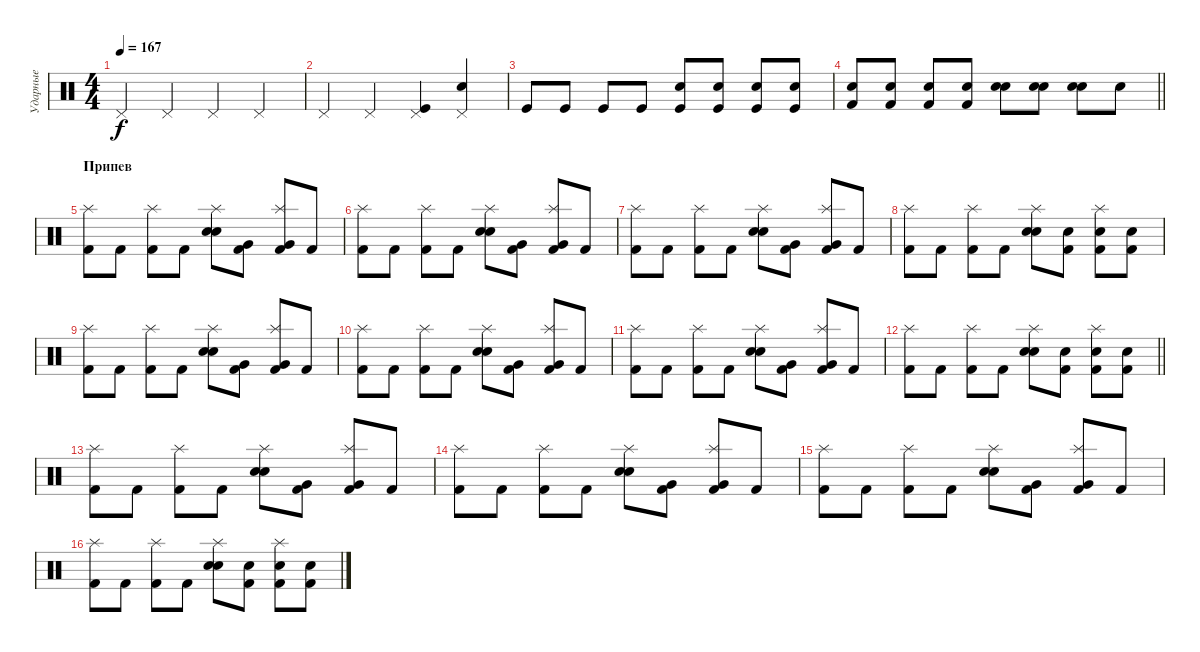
\track ("Ударные" "Ударные") {instrument percussion}
\staff {score}
\articulation defaults
\ts (4 4)
\tempo 167
\clef neutral
\ks c "Pedal Hi-Hat (hit)".4{dy f} "Pedal Hi-Hat (hit)".4 "Pedal Hi-Hat (hit)".4 "Pedal Hi-Hat (hit)".4
|
"Pedal Hi-Hat (hit)".4 "Pedal Hi-Hat (hit)".4 ("Pedal Hi-Hat (hit)" "Kick (hit)").4 ("Pedal Hi-Hat (hit)" "Electric Snare (hit)").4 |
"Kick (hit)".8 "Kick (hit)".8 "Kick (hit)".8 "Kick (hit)".8 ("Snare (hit) 2" "Kick (hit)").8 ("Snare (hit) 2" "Kick (hit)").8 ("Snare (hit) 2" "Kick (hit)").8 ("Snare (hit) 2" "Kick (hit)").8 |
\barLineRight lightlight
("Snare (hit) 2" "Kick (hit) 2").8 ("Snare (hit) 2" "Kick (hit) 2").8 ("Snare (hit) 2" "Kick (hit) 2").8 ("Snare (hit) 2" "Kick (hit) 2").8 ("Electric Snare (hit)" "Snare (hit) 2").8 ("Electric Snare (hit)" "Snare (hit) 2").8 ("Electric Snare (hit)" "Snare (hit) 2").8 "Electric Snare (hit)".8 |
\section ("" "Припев")
("Splash (hit)" "Kick (hit) 2").8 "Kick (hit) 2".8 ("Splash (hit)" "Kick (hit) 2").8 "Kick (hit) 2".8 ("Splash (hit)" "Electric Snare (hit)" "Snare (hit) 2").8 ("Very Low Tom (hit)" "Kick (hit) 2").8 ("Splash (hit)" "Very Low Tom (hit)" "Kick (hit) 2").8 "Kick (hit) 2".8 |
("Splash (hit)" "Kick (hit) 2").8 "Kick (hit) 2".8 ("Splash (hit)" "Kick (hit) 2").8 "Kick (hit) 2".8 ("Splash (hit)" "Electric Snare (hit)" "Snare (hit) 2").8 ("Very Low Tom (hit)" "Kick (hit) 2").8 ("Splash (hit)" "Very Low Tom (hit)" "Kick (hit) 2").8 "Kick (hit) 2".8 |
("Splash (hit)" "Kick (hit) 2").8 "Kick (hit) 2".8 ("Splash (hit)" "Kick (hit) 2").8 "Kick (hit) 2".8 ("Splash (hit)" "Electric Snare (hit)" "Snare (hit) 2").8 ("Very Low Tom (hit)" "Kick (hit) 2").8 ("Splash (hit)" "Very Low Tom (hit)" "Kick (hit) 2").8 "Kick (hit) 2".8 |
("Splash (hit)" "Kick (hit) 2").8 "Kick (hit) 2".8 ("Splash (hit)" "Kick (hit) 2").8 "Kick (hit) 2".8 ("Splash (hit)" "Electric Snare (hit)" "Snare (hit) 2").8 ("Electric Snare (hit)" "Kick (hit) 2").8 ("Splash (hit)" "Electric Snare (hit)" "Kick (hit) 2").8 ("Electric Snare (hit)" "Kick (hit) 2").8 |
("Splash (hit)" "Kick (hit) 2").8 "Kick (hit) 2".8 ("Splash (hit)" "Kick (hit) 2").8 "Kick (hit) 2".8 ("Splash (hit)" "Electric Snare (hit)" "Snare (hit) 2").8 ("Very Low Tom (hit)" "Kick (hit) 2").8 ("Splash (hit)" "Very Low Tom (hit)" "Kick (hit) 2").8 "Kick (hit) 2".8 |
("Splash (hit)" "Kick (hit) 2").8 "Kick (hit) 2".8 ("Splash (hit)" "Kick (hit) 2").8 "Kick (hit) 2".8 ("Splash (hit)" "Electric Snare (hit)" "Snare (hit) 2").8 ("Very Low Tom (hit)" "Kick (hit) 2").8 ("Splash (hit)" "Very Low Tom (hit)" "Kick (hit) 2").8 "Kick (hit) 2".8 |
("Splash (hit)" "Kick (hit) 2").8 "Kick (hit) 2".8 ("Splash (hit)" "Kick (hit) 2").8 "Kick (hit) 2".8 ("Splash (hit)" "Electric Snare (hit)" "Snare (hit) 2").8 ("Very Low Tom (hit)" "Kick (hit) 2").8 ("Splash (hit)" "Very Low Tom (hit)" "Kick (hit) 2").8 "Kick (hit) 2".8 |
\barLineRight lightlight
("Splash (hit)" "Kick (hit) 2").8 "Kick (hit) 2".8 ("Splash (hit)" "Kick (hit) 2").8 "Kick (hit) 2".8 ("Splash (hit)" "Electric Snare (hit)" "Snare (hit) 2").8 ("Electric Snare (hit)" "Kick (hit) 2").8 ("Splash (hit)" "Electric Snare (hit)" "Kick (hit) 2").8 ("Electric Snare (hit)" "Kick (hit) 2").8 |
("Splash (hit)" "Kick (hit) 2").8 "Kick (hit) 2".8 ("Splash (hit)" "Kick (hit) 2").8 "Kick (hit) 2".8 ("Splash (hit)" "Electric Snare (hit)" "Snare (hit) 2").8 ("Very Low Tom (hit)" "Kick (hit) 2").8 ("Splash (hit)" "Very Low Tom (hit)" "Kick (hit) 2").8 "Kick (hit) 2".8 |
("Splash (hit)" "Kick (hit) 2").8 "Kick (hit) 2".8 ("Splash (hit)" "Kick (hit) 2").8 "Kick (hit) 2".8 ("Splash (hit)" "Electric Snare (hit)" "Snare (hit) 2").8 ("Very Low Tom (hit)" "Kick (hit) 2").8 ("Splash (hit)" "Very Low Tom (hit)" "Kick (hit) 2").8 "Kick (hit) 2".8 |
("Splash (hit)" "Kick (hit) 2").8 "Kick (hit) 2".8 ("Splash (hit)" "Kick (hit) 2").8 "Kick (hit) 2".8 ("Splash (hit)" "Electric Snare (hit)" "Snare (hit) 2").8 ("Very Low Tom (hit)" "Kick (hit) 2").8 ("Splash (hit)" "Very Low Tom (hit)" "Kick (hit) 2").8 "Kick (hit) 2".8 |
("Splash (hit)" "Kick (hit) 2").8 "Kick (hit) 2".8 ("Splash (hit)" "Kick (hit) 2").8 "Kick (hit) 2".8 ("Splash (hit)" "Electric Snare (hit)" "Snare (hit) 2").8 ("Electric Snare (hit)" "Kick (hit) 2").8 ("Splash (hit)" "Electric Snare (hit)" "Kick (hit) 2").8 ("Electric Snare (hit)" "Kick (hit) 2").8
